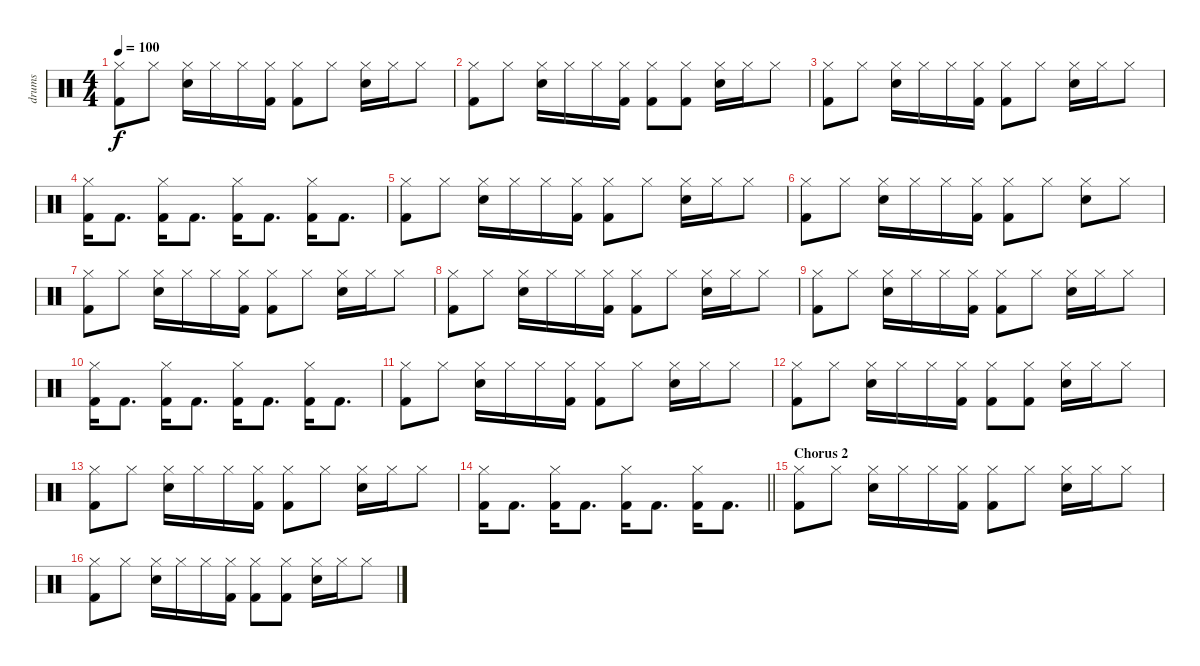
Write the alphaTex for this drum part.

\track ("drums" "drums") {instrument percussion}
\staff {score}
\articulation defaults
\ts (4 4)
\tempo 100
\clef neutral
\ks c
("Hi-Hat (closed)" "Kick (hit) 2").8{dy f} "Hi-Hat (closed)".8 ("Electric Snare (hit)" "Hi-Hat (closed)").16 "Hi-Hat (closed)".16 "Hi-Hat (closed)".16 ("Hi-Hat (closed)" "Kick (hit) 2").16 ("Hi-Hat (closed)" "Kick (hit) 2").8 "Hi-Hat (closed)".8 ("Electric Snare (hit)" "Hi-Hat (closed)").16 "Hi-Hat (closed)".16 "Hi-Hat (closed)".8 |
("Hi-Hat (closed)" "Kick (hit) 2").8 "Hi-Hat (closed)".8 ("Electric Snare (hit)" "Hi-Hat (closed)").16 "Hi-Hat (closed)".16 "Hi-Hat (closed)".16 ("Hi-Hat (closed)" "Kick (hit) 2").16 ("Hi-Hat (closed)" "Kick (hit) 2").8 ("Hi-Hat (closed)" "Kick (hit) 2").8 ("Electric Snare (hit)" "Hi-Hat (closed)").16 "Hi-Hat (closed)".16 "Hi-Hat (closed)".8 |
("Hi-Hat (closed)" "Kick (hit) 2").8 "Hi-Hat (closed)".8 ("Electric Snare (hit)" "Hi-Hat (closed)").16 "Hi-Hat (closed)".16 "Hi-Hat (closed)".16 ("Hi-Hat (closed)" "Kick (hit) 2").16 ("Hi-Hat (closed)" "Kick (hit) 2").8 "Hi-Hat (closed)".8 ("Electric Snare (hit)" "Hi-Hat (closed)").16 "Hi-Hat (closed)".16 "Hi-Hat (closed)".8 |
("Hi-Hat (closed)" "Kick (hit) 2").16 "Kick (hit) 2".8{d} ("Hi-Hat (closed)" "Kick (hit) 2").16 "Kick (hit) 2".8{d} ("Hi-Hat (closed)" "Kick (hit) 2").16 "Kick (hit) 2".8{d} ("Hi-Hat (closed)" "Kick (hit) 2").16 "Kick (hit) 2".8{d} |
("Hi-Hat (closed)" "Kick (hit) 2").8 "Hi-Hat (closed)".8 ("Electric Snare (hit)" "Hi-Hat (closed)").16 "Hi-Hat (closed)".16 "Hi-Hat (closed)".16 ("Hi-Hat (closed)" "Kick (hit) 2").16 ("Hi-Hat (closed)" "Kick (hit) 2").8 "Hi-Hat (closed)".8 ("Electric Snare (hit)" "Hi-Hat (closed)").16 "Hi-Hat (closed)".16 "Hi-Hat (closed)".8 |
("Hi-Hat (closed)" "Kick (hit) 2").8 "Hi-Hat (closed)".8 ("Electric Snare (hit)" "Hi-Hat (closed)").16 "Hi-Hat (closed)".16 "Hi-Hat (closed)".16 ("Hi-Hat (closed)" "Kick (hit) 2").16 ("Hi-Hat (closed)" "Kick (hit) 2").8 "Hi-Hat (closed)".8 ("Electric Snare (hit)" "Hi-Hat (closed)").8 "Hi-Hat (closed)".8 |
("Hi-Hat (closed)" "Kick (hit) 2").8 "Hi-Hat (closed)".8 ("Electric Snare (hit)" "Hi-Hat (closed)").16 "Hi-Hat (closed)".16 "Hi-Hat (closed)".16 ("Hi-Hat (closed)" "Kick (hit) 2").16 ("Hi-Hat (closed)" "Kick (hit) 2").8 "Hi-Hat (closed)".8 ("Electric Snare (hit)" "Hi-Hat (closed)").16 "Hi-Hat (closed)".16 "Hi-Hat (closed)".8 |
("Hi-Hat (closed)" "Kick (hit) 2").8 "Hi-Hat (closed)".8 ("Electric Snare (hit)" "Hi-Hat (closed)").16 "Hi-Hat (closed)".16 "Hi-Hat (closed)".16 ("Hi-Hat (closed)" "Kick (hit) 2").16 ("Hi-Hat (closed)" "Kick (hit) 2").8 "Hi-Hat (closed)".8 ("Electric Snare (hit)" "Hi-Hat (closed)").16 "Hi-Hat (closed)".16 "Hi-Hat (closed)".8 |
("Hi-Hat (closed)" "Kick (hit) 2").8 "Hi-Hat (closed)".8 ("Electric Snare (hit)" "Hi-Hat (closed)").16 "Hi-Hat (closed)".16 "Hi-Hat (closed)".16 ("Hi-Hat (closed)" "Kick (hit) 2").16 ("Hi-Hat (closed)" "Kick (hit) 2").8 "Hi-Hat (closed)".8 ("Electric Snare (hit)" "Hi-Hat (closed)").16 "Hi-Hat (closed)".16 "Hi-Hat (closed)".8 |
("Hi-Hat (closed)" "Kick (hit) 2").16 "Kick (hit) 2".8{d} ("Hi-Hat (closed)" "Kick (hit) 2").16 "Kick (hit) 2".8{d} ("Hi-Hat (closed)" "Kick (hit) 2").16 "Kick (hit) 2".8{d} ("Hi-Hat (closed)" "Kick (hit) 2").16 "Kick (hit) 2".8{d} |
("Hi-Hat (closed)" "Kick (hit) 2").8 "Hi-Hat (closed)".8 ("Electric Snare (hit)" "Hi-Hat (closed)").16 "Hi-Hat (closed)".16 "Hi-Hat (closed)".16 ("Hi-Hat (closed)" "Kick (hit) 2").16 ("Hi-Hat (closed)" "Kick (hit) 2").8 "Hi-Hat (closed)".8 ("Electric Snare (hit)" "Hi-Hat (closed)").16 "Hi-Hat (closed)".16 "Hi-Hat (closed)".8 |
("Hi-Hat (closed)" "Kick (hit) 2").8 "Hi-Hat (closed)".8 ("Electric Snare (hit)" "Hi-Hat (closed)").16 "Hi-Hat (closed)".16 "Hi-Hat (closed)".16 ("Hi-Hat (closed)" "Kick (hit) 2").16 ("Hi-Hat (closed)" "Kick (hit) 2").8 ("Hi-Hat (closed)" "Kick (hit) 2").8 ("Electric Snare (hit)" "Hi-Hat (closed)").16 "Hi-Hat (closed)".16 "Hi-Hat (closed)".8 |
("Hi-Hat (closed)" "Kick (hit) 2").8 "Hi-Hat (closed)".8 ("Electric Snare (hit)" "Hi-Hat (closed)").16 "Hi-Hat (closed)".16 "Hi-Hat (closed)".16 ("Hi-Hat (closed)" "Kick (hit) 2").16 ("Hi-Hat (closed)" "Kick (hit) 2").8 "Hi-Hat (closed)".8 ("Electric Snare (hit)" "Hi-Hat (closed)").16 "Hi-Hat (closed)".16 "Hi-Hat (closed)".8 |
\barLineRight lightlight
("Hi-Hat (closed)" "Kick (hit) 2").16 "Kick (hit) 2".8{d} ("Hi-Hat (closed)" "Kick (hit) 2").16 "Kick (hit) 2".8{d} ("Hi-Hat (closed)" "Kick (hit) 2").16 "Kick (hit) 2".8{d} ("Hi-Hat (closed)" "Kick (hit) 2").16 "Kick (hit) 2".8{d} |
\section ("" "Chorus 2")
("Hi-Hat (closed)" "Kick (hit) 2").8 "Hi-Hat (closed)".8 ("Electric Snare (hit)" "Hi-Hat (closed)").16 "Hi-Hat (closed)".16 "Hi-Hat (closed)".16 ("Hi-Hat (closed)" "Kick (hit) 2").16 ("Hi-Hat (closed)" "Kick (hit) 2").8 "Hi-Hat (closed)".8 ("Electric Snare (hit)" "Hi-Hat (closed)").16 "Hi-Hat (closed)".16 "Hi-Hat (closed)".8 |
("Hi-Hat (closed)" "Kick (hit) 2").8 "Hi-Hat (closed)".8 ("Electric Snare (hit)" "Hi-Hat (closed)").16 "Hi-Hat (closed)".16 "Hi-Hat (closed)".16 ("Hi-Hat (closed)" "Kick (hit) 2").16 ("Hi-Hat (closed)" "Kick (hit) 2").8 ("Hi-Hat (closed)" "Kick (hit) 2").8 ("Electric Snare (hit)" "Hi-Hat (closed)").16 "Hi-Hat (closed)".16 "Hi-Hat (closed)".8
